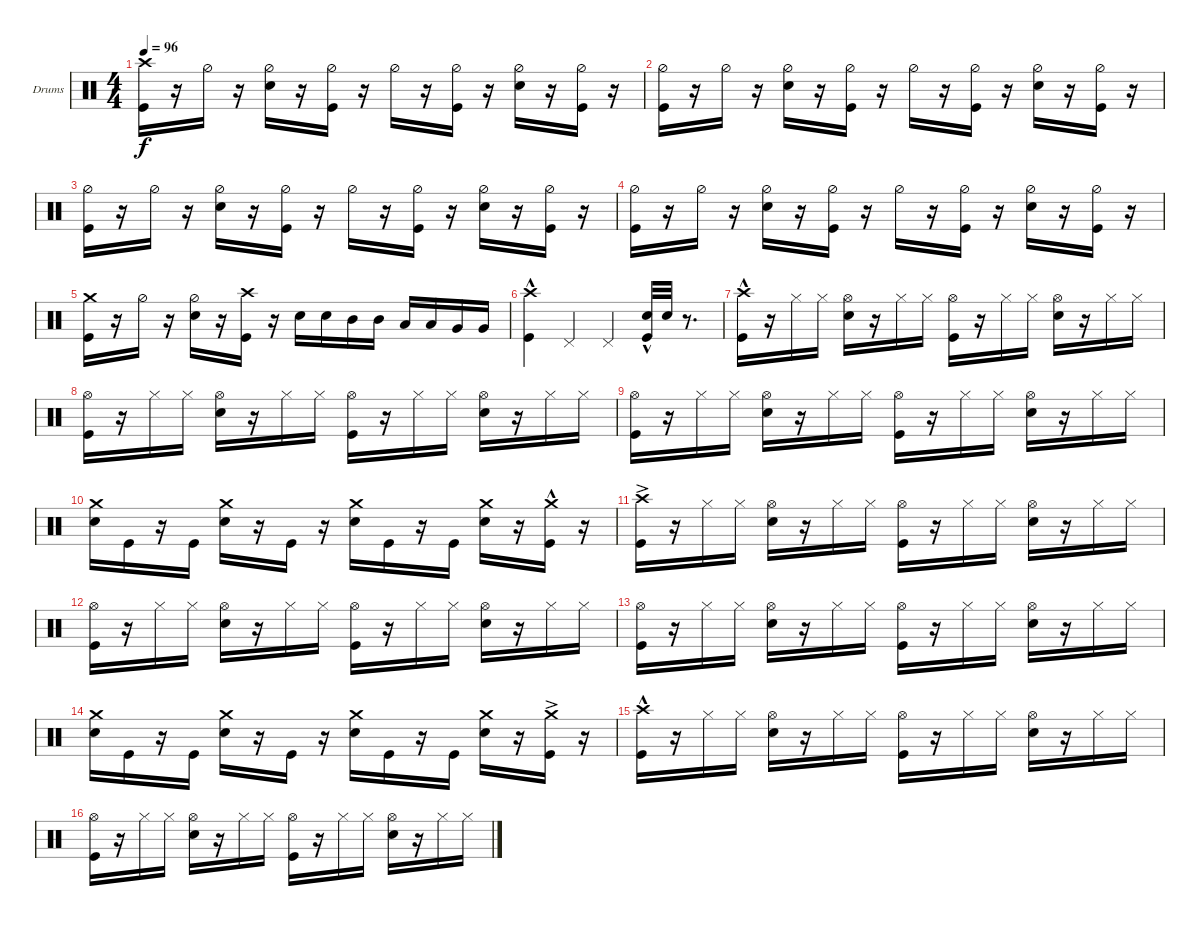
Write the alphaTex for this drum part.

\defaultSystemsLayout 4
\bracketExtendMode groupsimilarinstruments
\firstSystemTrackNameOrientation horizontal
\otherSystemsTrackNameOrientation horizontal
\track ("Stefan Schwarzmann" "Drums") {instrument percussion}
\staff {score}
\articulation defaults
\ts (4 4)
\tempo 96
\clef neutral
\ks c
("Kick (hit)" "Crash high (hit)").16{dy f} r.16 "Hi-Hat (half)".16 r.16 ("Snare (hit) 2" "Hi-Hat (half)").16 r.16 ("Hi-Hat (half)" "Kick (hit)").16 r.16 "Hi-Hat (half)".16 r.16 ("Hi-Hat (half)" "Kick (hit)").16 r.16 ("Snare (hit) 2" "Hi-Hat (half)").16 r.16 ("Hi-Hat (half)" "Kick (hit)").16 r.16 |
("Kick (hit)" "Hi-Hat (half)").16 r.16 "Hi-Hat (half)".16 r.16 ("Snare (hit) 2" "Hi-Hat (half)").16 r.16 ("Hi-Hat (half)" "Kick (hit)").16 r.16 "Hi-Hat (half)".16 r.16 ("Hi-Hat (half)" "Kick (hit)").16 r.16 ("Snare (hit) 2" "Hi-Hat (half)").16 r.16 ("Hi-Hat (half)" "Kick (hit)").16 r.16 |
("Kick (hit)" "Hi-Hat (half)").16 r.16 "Hi-Hat (half)".16 r.16 ("Snare (hit) 2" "Hi-Hat (half)").16 r.16 ("Hi-Hat (half)" "Kick (hit)").16 r.16 "Hi-Hat (half)".16 r.16 ("Hi-Hat (half)" "Kick (hit)").16 r.16 ("Snare (hit) 2" "Hi-Hat (half)").16 r.16 ("Hi-Hat (half)" "Kick (hit)").16 r.16 |
("Kick (hit)" "Hi-Hat (half)").16 r.16 "Hi-Hat (half)".16 r.16 ("Snare (hit) 2" "Hi-Hat (half)").16 r.16 ("Hi-Hat (half)" "Kick (hit)").16 r.16 "Hi-Hat (half)".16 r.16 ("Hi-Hat (half)" "Kick (hit)").16 r.16 ("Snare (hit) 2" "Hi-Hat (half)").16 r.16 ("Hi-Hat (half)" "Kick (hit)").16 r.16 |
("Kick (hit)" "Crash medium (hit)").16 r.16 "Hi-Hat (half)".16 r.16 ("Snare (hit) 2" "Hi-Hat (half)").16 r.16 ("Kick (hit)" "Crash high (hit)").16 r.16 "Snare (hit) 2".16 "Snare (hit) 2".16 "Mid Tom (hit)".16 "Mid Tom (hit)".16 "Low Tom (hit)".16 "Low Tom (hit)".16 "Very Low Tom (hit)".16 "Very Low Tom (hit)".16 |
("Kick (hit)"{hac} "Crash high (hit)"{hac}).4 "Pedal Hi-Hat (hit)".4 "Pedal Hi-Hat (hit)".4 ("Snare (hit) 2"{hac} "Kick (hit)"{hac}).32 "Snare (hit) 2".32 r.8{d} |
("Kick (hit)"{hac} "Crash high (hit)"{hac}).16 r.16 "Hi-Hat (closed)".16 "Hi-Hat (closed)".16 ("Snare (hit) 2" "Hi-Hat (open)").16 r.16 "Hi-Hat (closed)".16 "Hi-Hat (closed)".16 ("Kick (hit)" "Hi-Hat (open)").16 r.16 "Hi-Hat (closed)".16 "Hi-Hat (closed)".16 ("Snare (hit) 2" "Hi-Hat (open)").16 r.16 "Hi-Hat (closed)".16 "Hi-Hat (closed)".16 |
("Kick (hit)" "Hi-Hat (open)").16 r.16 "Hi-Hat (closed)".16 "Hi-Hat (closed)".16 ("Snare (hit) 2" "Hi-Hat (open)").16 r.16 "Hi-Hat (closed)".16 "Hi-Hat (closed)".16 ("Kick (hit)" "Hi-Hat (open)").16 r.16 "Hi-Hat (closed)".16 "Hi-Hat (closed)".16 ("Snare (hit) 2" "Hi-Hat (open)").16 r.16 "Hi-Hat (closed)".16 "Hi-Hat (closed)".16 |
("Kick (hit)" "Hi-Hat (open)").16 r.16 "Hi-Hat (closed)".16 "Hi-Hat (closed)".16 ("Snare (hit) 2" "Hi-Hat (open)").16 r.16 "Hi-Hat (closed)".16 "Hi-Hat (closed)".16 ("Kick (hit)" "Hi-Hat (open)").16 r.16 "Hi-Hat (closed)".16 "Hi-Hat (closed)".16 ("Snare (hit) 2" "Hi-Hat (open)").16 r.16 "Hi-Hat (closed)".16 "Hi-Hat (closed)".16 |
("Snare (hit) 2" "Crash medium (hit)").16 "Kick (hit)".16 r.16 "Kick (hit)".16 ("Snare (hit) 2" "Crash medium (hit)").16 r.16 "Kick (hit)".16 r.16 ("Snare (hit) 2" "Crash medium (hit)").16 "Kick (hit)".16 r.16 "Kick (hit)".16 ("Snare (hit) 2" "Crash medium (hit)").16 r.16 ("Kick (hit)"{hac} "Crash medium (hit)"{hac}).16 r.16 |
("Kick (hit)"{ac} "Crash high (hit)"{ac}).16 r.16 "Hi-Hat (closed)".16 "Hi-Hat (closed)".16 ("Snare (hit) 2" "Hi-Hat (open)").16 r.16 "Hi-Hat (closed)".16 "Hi-Hat (closed)".16 ("Kick (hit)" "Hi-Hat (open)").16 r.16 "Hi-Hat (closed)".16 "Hi-Hat (closed)".16 ("Snare (hit) 2" "Hi-Hat (open)").16 r.16 "Hi-Hat (closed)".16 "Hi-Hat (closed)".16 |
("Kick (hit)" "Hi-Hat (open)").16 r.16 "Hi-Hat (closed)".16 "Hi-Hat (closed)".16 ("Snare (hit) 2" "Hi-Hat (open)").16 r.16 "Hi-Hat (closed)".16 "Hi-Hat (closed)".16 ("Kick (hit)" "Hi-Hat (open)").16 r.16 "Hi-Hat (closed)".16 "Hi-Hat (closed)".16 ("Snare (hit) 2" "Hi-Hat (open)").16 r.16 "Hi-Hat (closed)".16 "Hi-Hat (closed)".16 |
("Kick (hit)" "Hi-Hat (open)").16 r.16 "Hi-Hat (closed)".16 "Hi-Hat (closed)".16 ("Snare (hit) 2" "Hi-Hat (open)").16 r.16 "Hi-Hat (closed)".16 "Hi-Hat (closed)".16 ("Kick (hit)" "Hi-Hat (open)").16 r.16 "Hi-Hat (closed)".16 "Hi-Hat (closed)".16 ("Snare (hit) 2" "Hi-Hat (open)").16 r.16 "Hi-Hat (closed)".16 "Hi-Hat (closed)".16 |
("Snare (hit) 2" "Crash medium (hit)").16 "Kick (hit)".16 r.16 "Kick (hit)".16 ("Snare (hit) 2" "Crash medium (hit)").16 r.16 "Kick (hit)".16 r.16 ("Snare (hit) 2" "Crash medium (hit)").16 "Kick (hit)".16 r.16 "Kick (hit)".16 ("Snare (hit) 2" "Crash medium (hit)").16 r.16 ("Kick (hit)" "Crash medium (hit)"{ac}).16 r.16 |
("Kick (hit)"{hac} "Crash high (hit)"{hac}).16 r.16 "Hi-Hat (closed)".16 "Hi-Hat (closed)".16 ("Snare (hit) 2" "Hi-Hat (open)").16 r.16 "Hi-Hat (closed)".16 "Hi-Hat (closed)".16 ("Kick (hit)" "Hi-Hat (open)").16 r.16 "Hi-Hat (closed)".16 "Hi-Hat (closed)".16 ("Snare (hit) 2" "Hi-Hat (open)").16 r.16 "Hi-Hat (closed)".16 "Hi-Hat (closed)".16 |
("Kick (hit)" "Hi-Hat (open)").16 r.16 "Hi-Hat (closed)".16 "Hi-Hat (closed)".16 ("Snare (hit) 2" "Hi-Hat (open)").16 r.16 "Hi-Hat (closed)".16 "Hi-Hat (closed)".16 ("Kick (hit)" "Hi-Hat (open)").16 r.16 "Hi-Hat (closed)".16 "Hi-Hat (closed)".16 ("Snare (hit) 2" "Hi-Hat (open)").16 r.16 "Hi-Hat (closed)".16 "Hi-Hat (closed)".16
